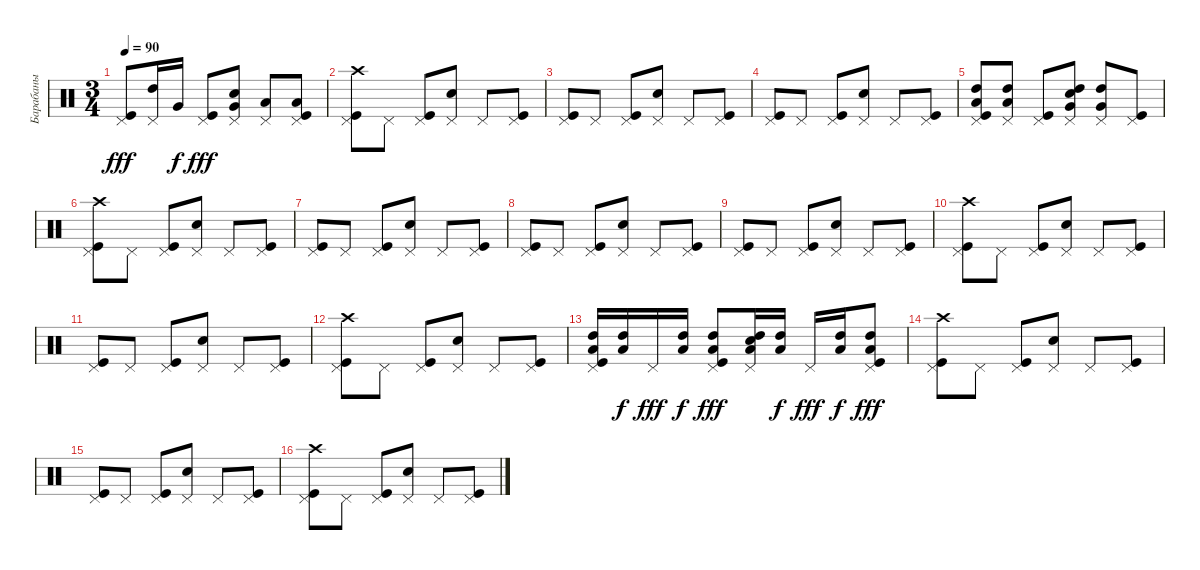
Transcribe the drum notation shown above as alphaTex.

\track ("Барабаны" "Барабаны") {instrument percussion}
\staff {score}
\articulation defaults
\ts (3 4)
\tempo 90
\clef neutral
\ks c
("Kick (hit)" "Pedal Hi-Hat (hit)").8{dy fff} ("Pedal Hi-Hat (hit)" "High Tom (hit)").16 "Very Low Tom (hit)".16{dy f} ("Kick (hit)" "Pedal Hi-Hat (hit)").8{dy fff} ("Snare (hit) 2" "Pedal Hi-Hat (hit)" "Very Low Tom (hit)").8 ("Pedal Hi-Hat (hit)" "Low Floor Tom (hit)").8 ("Kick (hit)" "Pedal Hi-Hat (hit)" "Low Floor Tom (hit)").8 |
("Kick (hit)" "Pedal Hi-Hat (hit)" "Crash high (hit)").8 "Pedal Hi-Hat (hit)".8 ("Kick (hit)" "Pedal Hi-Hat (hit)").8 ("Snare (hit) 2" "Pedal Hi-Hat (hit)").8 "Pedal Hi-Hat (hit)".8 ("Kick (hit)" "Pedal Hi-Hat (hit)").8 |
("Kick (hit)" "Pedal Hi-Hat (hit)").8 "Pedal Hi-Hat (hit)".8 ("Kick (hit)" "Pedal Hi-Hat (hit)").8 ("Snare (hit) 2" "Pedal Hi-Hat (hit)").8 "Pedal Hi-Hat (hit)".8 ("Kick (hit)" "Pedal Hi-Hat (hit)").8 |
("Kick (hit)" "Pedal Hi-Hat (hit)").8 "Pedal Hi-Hat (hit)".8 ("Kick (hit)" "Pedal Hi-Hat (hit)").8 ("Snare (hit) 2" "Pedal Hi-Hat (hit)").8 "Pedal Hi-Hat (hit)".8 ("Kick (hit)" "Pedal Hi-Hat (hit)").8 |
("Kick (hit)" "Pedal Hi-Hat (hit)" "Low Floor Tom (hit)" "High Tom (hit)").8 ("Pedal Hi-Hat (hit)" "Low Floor Tom (hit)" "High Tom (hit)").8 ("Kick (hit)" "Pedal Hi-Hat (hit)").8 ("Snare (hit) 2" "Pedal Hi-Hat (hit)" "Very Low Tom (hit)" "High Tom (hit)").8 ("Pedal Hi-Hat (hit)" "Very Low Tom (hit)" "High Tom (hit)").8 ("Kick (hit)" "Pedal Hi-Hat (hit)").8 |
("Kick (hit)" "Pedal Hi-Hat (hit)" "Crash high (hit)").8 "Pedal Hi-Hat (hit)".8 ("Kick (hit)" "Pedal Hi-Hat (hit)").8 ("Snare (hit) 2" "Pedal Hi-Hat (hit)").8 "Pedal Hi-Hat (hit)".8 ("Kick (hit)" "Pedal Hi-Hat (hit)").8 |
("Kick (hit)" "Pedal Hi-Hat (hit)").8 "Pedal Hi-Hat (hit)".8 ("Kick (hit)" "Pedal Hi-Hat (hit)").8 ("Snare (hit) 2" "Pedal Hi-Hat (hit)").8 "Pedal Hi-Hat (hit)".8 ("Kick (hit)" "Pedal Hi-Hat (hit)").8 |
("Kick (hit)" "Pedal Hi-Hat (hit)").8 "Pedal Hi-Hat (hit)".8 ("Kick (hit)" "Pedal Hi-Hat (hit)").8 ("Snare (hit) 2" "Pedal Hi-Hat (hit)").8 "Pedal Hi-Hat (hit)".8 ("Kick (hit)" "Pedal Hi-Hat (hit)").8 |
("Kick (hit)" "Pedal Hi-Hat (hit)").8 "Pedal Hi-Hat (hit)".8 ("Kick (hit)" "Pedal Hi-Hat (hit)").8 ("Snare (hit) 2" "Pedal Hi-Hat (hit)").8 "Pedal Hi-Hat (hit)".8 ("Kick (hit)" "Pedal Hi-Hat (hit)").8 |
("Kick (hit)" "Pedal Hi-Hat (hit)" "Crash high (hit)").8 "Pedal Hi-Hat (hit)".8 ("Kick (hit)" "Pedal Hi-Hat (hit)").8 ("Snare (hit) 2" "Pedal Hi-Hat (hit)").8 "Pedal Hi-Hat (hit)".8 ("Kick (hit)" "Pedal Hi-Hat (hit)").8 |
("Kick (hit)" "Pedal Hi-Hat (hit)").8 "Pedal Hi-Hat (hit)".8 ("Kick (hit)" "Pedal Hi-Hat (hit)").8 ("Snare (hit) 2" "Pedal Hi-Hat (hit)").8 "Pedal Hi-Hat (hit)".8 ("Kick (hit)" "Pedal Hi-Hat (hit)").8 |
("Kick (hit)" "Pedal Hi-Hat (hit)" "Crash high (hit)").8 "Pedal Hi-Hat (hit)".8 ("Kick (hit)" "Pedal Hi-Hat (hit)").8 ("Snare (hit) 2" "Pedal Hi-Hat (hit)").8 "Pedal Hi-Hat (hit)".8 ("Kick (hit)" "Pedal Hi-Hat (hit)").8 |
("Kick (hit)" "Pedal Hi-Hat (hit)" "Low Floor Tom (hit)" "High Tom (hit)").16 ("Low Floor Tom (hit)" "High Tom (hit)").16{dy f} "Pedal Hi-Hat (hit)".16{dy fff} ("Low Floor Tom (hit)" "High Tom (hit)").16{dy f} ("Kick (hit)" "Pedal Hi-Hat (hit)" "Low Floor Tom (hit)" "High Tom (hit)").8{dy fff} ("Snare (hit) 2" "Pedal Hi-Hat (hit)" "Low Floor Tom (hit)" "High Tom (hit)").16 ("Low Floor Tom (hit)" "High Tom (hit)").16{dy f} "Pedal Hi-Hat (hit)".16{dy fff} ("Low Floor Tom (hit)" "High Tom (hit)").16{dy f} ("Kick (hit)" "Pedal Hi-Hat (hit)" "Low Floor Tom (hit)" "High Tom (hit)").8{dy fff} |
("Kick (hit)" "Pedal Hi-Hat (hit)" "Crash high (hit)").8 "Pedal Hi-Hat (hit)".8 ("Kick (hit)" "Pedal Hi-Hat (hit)").8 ("Snare (hit) 2" "Pedal Hi-Hat (hit)").8 "Pedal Hi-Hat (hit)".8 ("Kick (hit)" "Pedal Hi-Hat (hit)").8 |
("Kick (hit)" "Pedal Hi-Hat (hit)").8 "Pedal Hi-Hat (hit)".8 ("Kick (hit)" "Pedal Hi-Hat (hit)").8 ("Snare (hit) 2" "Pedal Hi-Hat (hit)").8 "Pedal Hi-Hat (hit)".8 ("Kick (hit)" "Pedal Hi-Hat (hit)").8 |
("Kick (hit)" "Pedal Hi-Hat (hit)" "Crash high (hit)").8 "Pedal Hi-Hat (hit)".8 ("Kick (hit)" "Pedal Hi-Hat (hit)").8 ("Snare (hit) 2" "Pedal Hi-Hat (hit)").8 "Pedal Hi-Hat (hit)".8 ("Kick (hit)" "Pedal Hi-Hat (hit)").8
